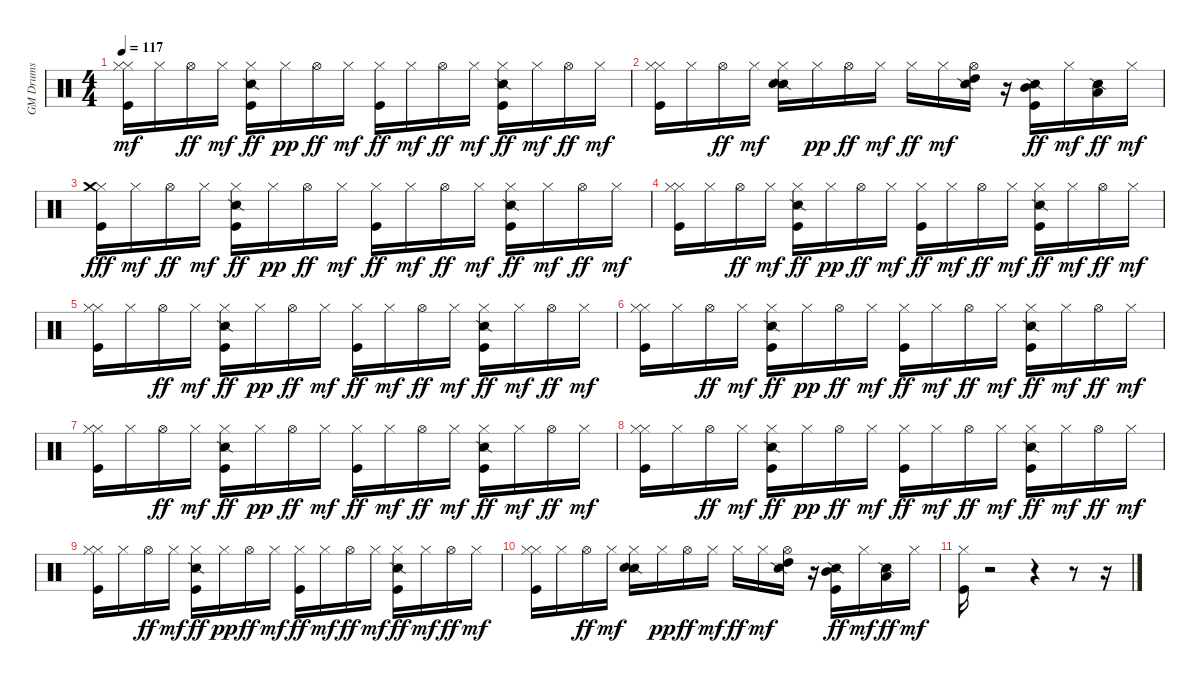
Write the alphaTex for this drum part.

\track ("GM Drums" "GM Drums") {instrument percussion}
\staff {score}
\articulation defaults
\ts (4 4)
\tempo 117
\clef neutral
\ks c
("Hi-Hat (closed)" "Kick (hit)" "Hi-Hat (closed)").16{dy mf} "Hi-Hat (closed)".16 "Hi-Hat (open)".16{dy ff} "Hi-Hat (closed)".16{dy mf} ("Kick (hit)" "Hi-Hat (closed)" "Snare (side stick) 2").16{dy ff} "Hi-Hat (closed)".16{dy pp} "Hi-Hat (open)".16{dy ff} "Hi-Hat (closed)".16{dy mf} ("Kick (hit)" "Hi-Hat (closed)").16{dy ff} "Hi-Hat (closed)".16{dy mf} "Hi-Hat (open)".16{dy ff} "Hi-Hat (closed)".16{dy mf} ("Kick (hit)" "Hi-Hat (closed)" "Snare (side stick) 2").16{dy ff} "Hi-Hat (closed)".16{dy mf} "Hi-Hat (open)".16{dy ff} "Hi-Hat (closed)".16{dy mf} |
("Hi-Hat (closed)" "Kick (hit)" "Hi-Hat (closed)").16 "Hi-Hat (closed)".16 "Hi-Hat (open)".16{dy ff} "Hi-Hat (closed)".16{dy mf} ("Hi-Hat (closed)" "Snare (side stick) 2" "Electric Snare (hit)").16 "Hi-Hat (closed)".16{dy pp} "Hi-Hat (open)".16{dy ff} "Hi-Hat (closed)".16{dy mf} "Hi-Hat (closed)".16{dy ff} "Hi-Hat (closed)".16{dy mf} ("Snare (side stick) 2" "Hi-Hat (open)" "High Tom (hit)").16 r.16 ("Kick (hit)" "Snare (side stick) 2" "Mid Tom (hit)").16{dy ff} "Hi-Hat (closed)".16{dy mf} ("Snare (side stick) 2" "Low Tom (hit)").16{dy ff} "Hi-Hat (closed)".16{dy mf} |
("Kick (hit)" "Hi-Hat (closed)" "Crash medium (hit)").16{dy fff} "Hi-Hat (closed)".16{dy mf} "Hi-Hat (open)".16{dy ff} "Hi-Hat (closed)".16{dy mf} ("Kick (hit)" "Hi-Hat (closed)" "Snare (side stick) 2").16{dy ff} "Hi-Hat (closed)".16{dy pp} "Hi-Hat (open)".16{dy ff} "Hi-Hat (closed)".16{dy mf} ("Kick (hit)" "Hi-Hat (closed)").16{dy ff} "Hi-Hat (closed)".16{dy mf} "Hi-Hat (open)".16{dy ff} "Hi-Hat (closed)".16{dy mf} ("Kick (hit)" "Hi-Hat (closed)" "Snare (side stick) 2").16{dy ff} "Hi-Hat (closed)".16{dy mf} "Hi-Hat (open)".16{dy ff} "Hi-Hat (closed)".16{dy mf} |
("Hi-Hat (closed)" "Kick (hit)" "Hi-Hat (closed)").16 "Hi-Hat (closed)".16 "Hi-Hat (open)".16{dy ff} "Hi-Hat (closed)".16{dy mf} ("Kick (hit)" "Hi-Hat (closed)" "Snare (side stick) 2").16{dy ff} "Hi-Hat (closed)".16{dy pp} "Hi-Hat (open)".16{dy ff} "Hi-Hat (closed)".16{dy mf} ("Kick (hit)" "Hi-Hat (closed)").16{dy ff} "Hi-Hat (closed)".16{dy mf} "Hi-Hat (open)".16{dy ff} "Hi-Hat (closed)".16{dy mf} ("Kick (hit)" "Hi-Hat (closed)" "Snare (side stick) 2").16{dy ff} "Hi-Hat (closed)".16{dy mf} "Hi-Hat (open)".16{dy ff} "Hi-Hat (closed)".16{dy mf} |
("Hi-Hat (closed)" "Kick (hit)" "Hi-Hat (closed)").16 "Hi-Hat (closed)".16 "Hi-Hat (open)".16{dy ff} "Hi-Hat (closed)".16{dy mf} ("Kick (hit)" "Hi-Hat (closed)" "Snare (side stick) 2").16{dy ff} "Hi-Hat (closed)".16{dy pp} "Hi-Hat (open)".16{dy ff} "Hi-Hat (closed)".16{dy mf} ("Kick (hit)" "Hi-Hat (closed)").16{dy ff} "Hi-Hat (closed)".16{dy mf} "Hi-Hat (open)".16{dy ff} "Hi-Hat (closed)".16{dy mf} ("Kick (hit)" "Hi-Hat (closed)" "Snare (side stick) 2").16{dy ff} "Hi-Hat (closed)".16{dy mf} "Hi-Hat (open)".16{dy ff} "Hi-Hat (closed)".16{dy mf} |
("Hi-Hat (closed)" "Kick (hit)" "Hi-Hat (closed)").16 "Hi-Hat (closed)".16 "Hi-Hat (open)".16{dy ff} "Hi-Hat (closed)".16{dy mf} ("Kick (hit)" "Hi-Hat (closed)" "Snare (side stick) 2").16{dy ff} "Hi-Hat (closed)".16{dy pp} "Hi-Hat (open)".16{dy ff} "Hi-Hat (closed)".16{dy mf} ("Kick (hit)" "Hi-Hat (closed)").16{dy ff} "Hi-Hat (closed)".16{dy mf} "Hi-Hat (open)".16{dy ff} "Hi-Hat (closed)".16{dy mf} ("Kick (hit)" "Hi-Hat (closed)" "Snare (side stick) 2").16{dy ff} "Hi-Hat (closed)".16{dy mf} "Hi-Hat (open)".16{dy ff} "Hi-Hat (closed)".16{dy mf} |
("Hi-Hat (closed)" "Kick (hit)" "Hi-Hat (closed)").16 "Hi-Hat (closed)".16 "Hi-Hat (open)".16{dy ff} "Hi-Hat (closed)".16{dy mf} ("Kick (hit)" "Hi-Hat (closed)" "Snare (side stick) 2").16{dy ff} "Hi-Hat (closed)".16{dy pp} "Hi-Hat (open)".16{dy ff} "Hi-Hat (closed)".16{dy mf} ("Kick (hit)" "Hi-Hat (closed)").16{dy ff} "Hi-Hat (closed)".16{dy mf} "Hi-Hat (open)".16{dy ff} "Hi-Hat (closed)".16{dy mf} ("Kick (hit)" "Hi-Hat (closed)" "Snare (side stick) 2").16{dy ff} "Hi-Hat (closed)".16{dy mf} "Hi-Hat (open)".16{dy ff} "Hi-Hat (closed)".16{dy mf} |
("Hi-Hat (closed)" "Kick (hit)" "Hi-Hat (closed)").16 "Hi-Hat (closed)".16 "Hi-Hat (open)".16{dy ff} "Hi-Hat (closed)".16{dy mf} ("Kick (hit)" "Hi-Hat (closed)" "Snare (side stick) 2").16{dy ff} "Hi-Hat (closed)".16{dy pp} "Hi-Hat (open)".16{dy ff} "Hi-Hat (closed)".16{dy mf} ("Kick (hit)" "Hi-Hat (closed)").16{dy ff} "Hi-Hat (closed)".16{dy mf} "Hi-Hat (open)".16{dy ff} "Hi-Hat (closed)".16{dy mf} ("Kick (hit)" "Hi-Hat (closed)" "Snare (side stick) 2").16{dy ff} "Hi-Hat (closed)".16{dy mf} "Hi-Hat (open)".16{dy ff} "Hi-Hat (closed)".16{dy mf} |
("Hi-Hat (closed)" "Kick (hit)" "Hi-Hat (closed)").16 "Hi-Hat (closed)".16 "Hi-Hat (open)".16{dy ff} "Hi-Hat (closed)".16{dy mf} ("Kick (hit)" "Hi-Hat (closed)" "Snare (side stick) 2").16{dy ff} "Hi-Hat (closed)".16{dy pp} "Hi-Hat (open)".16{dy ff} "Hi-Hat (closed)".16{dy mf} ("Kick (hit)" "Hi-Hat (closed)").16{dy ff} "Hi-Hat (closed)".16{dy mf} "Hi-Hat (open)".16{dy ff} "Hi-Hat (closed)".16{dy mf} ("Kick (hit)" "Hi-Hat (closed)" "Snare (side stick) 2").16{dy ff} "Hi-Hat (closed)".16{dy mf} "Hi-Hat (open)".16{dy ff} "Hi-Hat (closed)".16{dy mf} |
("Hi-Hat (closed)" "Kick (hit)" "Hi-Hat (closed)").16 "Hi-Hat (closed)".16 "Hi-Hat (open)".16{dy ff} "Hi-Hat (closed)".16{dy mf} ("Hi-Hat (closed)" "Snare (side stick) 2" "Electric Snare (hit)").16 "Hi-Hat (closed)".16{dy pp} "Hi-Hat (open)".16{dy ff} "Hi-Hat (closed)".16{dy mf} "Hi-Hat (closed)".16{dy ff} "Hi-Hat (closed)".16{dy mf} ("Snare (side stick) 2" "Hi-Hat (open)" "High Tom (hit)").16 r.16 ("Kick (hit)" "Snare (side stick) 2" "Mid Tom (hit)").16{dy ff} "Hi-Hat (closed)".16{dy mf} ("Snare (side stick) 2" "Low Tom (hit)").16{dy ff} "Hi-Hat (closed)".16{dy mf} |
("Kick (hit)" "Hi-Hat (closed)").16 r.2 r.4 r.8 r.16
